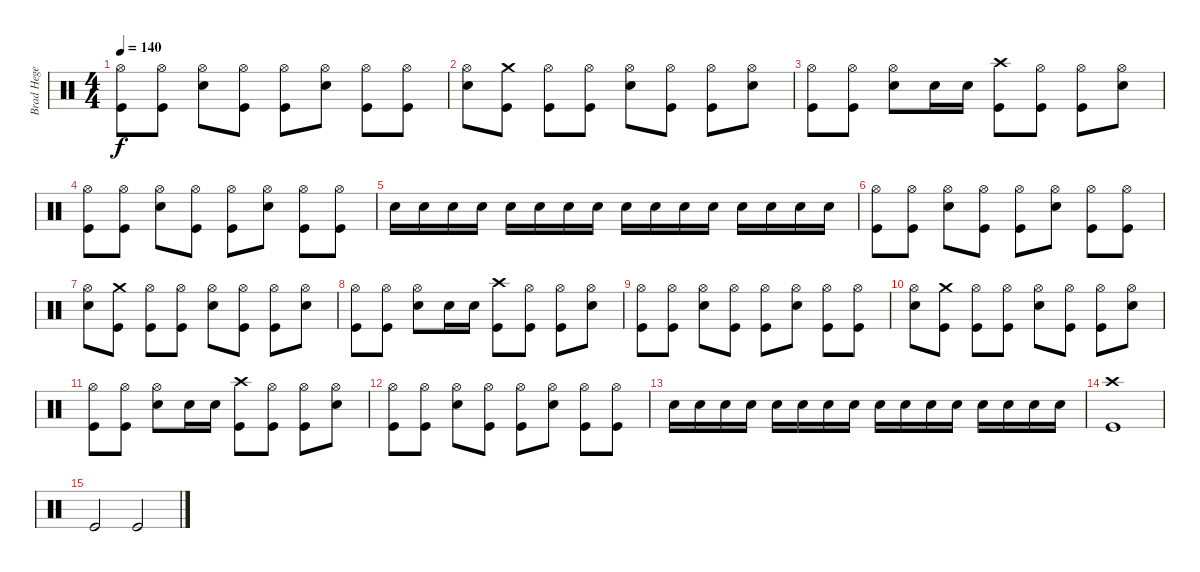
\track ("Brad Hege" "Brad Hege") {instrument percussion}
\staff {score}
\articulation defaults
\ts (4 4)
\tempo 140
\clef neutral
\ks c
("Hi-Hat (open)" "Kick (hit)").8{dy f} ("Hi-Hat (open)" "Kick (hit)").8 ("Hi-Hat (open)" "Snare (hit) 2").8 ("Hi-Hat (open)" "Kick (hit)").8 ("Hi-Hat (open)" "Kick (hit)").8 ("Hi-Hat (open)" "Snare (hit) 2").8 ("Hi-Hat (open)" "Kick (hit)").8 ("Hi-Hat (open)" "Kick (hit)").8 |
("Hi-Hat (open)" "Snare (hit) 2").8 ("Crash medium (hit)" "Kick (hit)").8 ("Hi-Hat (open)" "Kick (hit)").8 ("Hi-Hat (open)" "Kick (hit)").8 ("Hi-Hat (open)" "Snare (hit) 2").8 ("Hi-Hat (open)" "Kick (hit)").8 ("Hi-Hat (open)" "Kick (hit)").8 ("Hi-Hat (open)" "Snare (hit) 2").8 |
("Hi-Hat (open)" "Kick (hit)").8 ("Hi-Hat (open)" "Kick (hit)").8 ("Hi-Hat (open)" "Snare (hit) 2").8 "Snare (hit) 2".16 "Snare (hit) 2".16 ("Crash high (hit)" "Kick (hit)").8 ("Hi-Hat (open)" "Kick (hit)").8 ("Hi-Hat (open)" "Kick (hit)").8 ("Hi-Hat (open)" "Snare (hit) 2").8 |
("Hi-Hat (open)" "Kick (hit)").8 ("Hi-Hat (open)" "Kick (hit)").8 ("Hi-Hat (open)" "Snare (hit) 2").8 ("Hi-Hat (open)" "Kick (hit)").8 ("Hi-Hat (open)" "Kick (hit)").8 ("Hi-Hat (open)" "Snare (hit) 2").8 ("Hi-Hat (open)" "Kick (hit)").8 ("Hi-Hat (open)" "Kick (hit)").8 |
"Snare (hit) 2".16 "Snare (hit) 2".16 "Snare (hit) 2".16 "Snare (hit) 2".16 "Snare (hit) 2".16 "Snare (hit) 2".16 "Snare (hit) 2".16 "Snare (hit) 2".16 "Snare (hit) 2".16 "Snare (hit) 2".16 "Snare (hit) 2".16 "Snare (hit) 2".16 "Snare (hit) 2".16 "Snare (hit) 2".16 "Snare (hit) 2".16 "Snare (hit) 2".16 |
("Hi-Hat (open)" "Kick (hit)").8 ("Hi-Hat (open)" "Kick (hit)").8 ("Hi-Hat (open)" "Snare (hit) 2").8 ("Hi-Hat (open)" "Kick (hit)").8 ("Hi-Hat (open)" "Kick (hit)").8 ("Hi-Hat (open)" "Snare (hit) 2").8 ("Hi-Hat (open)" "Kick (hit)").8 ("Hi-Hat (open)" "Kick (hit)").8 |
("Hi-Hat (open)" "Snare (hit) 2").8 ("Crash medium (hit)" "Kick (hit)").8 ("Hi-Hat (open)" "Kick (hit)").8 ("Hi-Hat (open)" "Kick (hit)").8 ("Hi-Hat (open)" "Snare (hit) 2").8 ("Hi-Hat (open)" "Kick (hit)").8 ("Hi-Hat (open)" "Kick (hit)").8 ("Hi-Hat (open)" "Snare (hit) 2").8 |
("Hi-Hat (open)" "Kick (hit)").8 ("Hi-Hat (open)" "Kick (hit)").8 ("Hi-Hat (open)" "Snare (hit) 2").8 "Snare (hit) 2".16 "Snare (hit) 2".16 ("Crash high (hit)" "Kick (hit)").8 ("Hi-Hat (open)" "Kick (hit)").8 ("Hi-Hat (open)" "Kick (hit)").8 ("Hi-Hat (open)" "Snare (hit) 2").8 |
("Hi-Hat (open)" "Kick (hit)").8 ("Hi-Hat (open)" "Kick (hit)").8 ("Hi-Hat (open)" "Snare (hit) 2").8 ("Hi-Hat (open)" "Kick (hit)").8 ("Hi-Hat (open)" "Kick (hit)").8 ("Hi-Hat (open)" "Snare (hit) 2").8 ("Hi-Hat (open)" "Kick (hit)").8 ("Hi-Hat (open)" "Kick (hit)").8 |
("Hi-Hat (open)" "Snare (hit) 2").8 ("Crash medium (hit)" "Kick (hit)").8 ("Hi-Hat (open)" "Kick (hit)").8 ("Hi-Hat (open)" "Kick (hit)").8 ("Hi-Hat (open)" "Snare (hit) 2").8 ("Hi-Hat (open)" "Kick (hit)").8 ("Hi-Hat (open)" "Kick (hit)").8 ("Hi-Hat (open)" "Snare (hit) 2").8 |
("Hi-Hat (open)" "Kick (hit)").8 ("Hi-Hat (open)" "Kick (hit)").8 ("Hi-Hat (open)" "Snare (hit) 2").8 "Snare (hit) 2".16 "Snare (hit) 2".16 ("Crash high (hit)" "Kick (hit)").8 ("Hi-Hat (open)" "Kick (hit)").8 ("Hi-Hat (open)" "Kick (hit)").8 ("Hi-Hat (open)" "Snare (hit) 2").8 |
("Hi-Hat (open)" "Kick (hit)").8 ("Hi-Hat (open)" "Kick (hit)").8 ("Hi-Hat (open)" "Snare (hit) 2").8 ("Hi-Hat (open)" "Kick (hit)").8 ("Hi-Hat (open)" "Kick (hit)").8 ("Hi-Hat (open)" "Snare (hit) 2").8 ("Hi-Hat (open)" "Kick (hit)").8 ("Hi-Hat (open)" "Kick (hit)").8 |
"Snare (hit) 2".16 "Snare (hit) 2".16 "Snare (hit) 2".16 "Snare (hit) 2".16 "Snare (hit) 2".16 "Snare (hit) 2".16 "Snare (hit) 2".16 "Snare (hit) 2".16 "Snare (hit) 2".16 "Snare (hit) 2".16 "Snare (hit) 2".16 "Snare (hit) 2".16 "Snare (hit) 2".16 "Snare (hit) 2".16 "Snare (hit) 2".16 "Snare (hit) 2".16 |
("Crash high (hit)" "Kick (hit)").1 |
"Kick (hit)".2 "Kick (hit)".2
